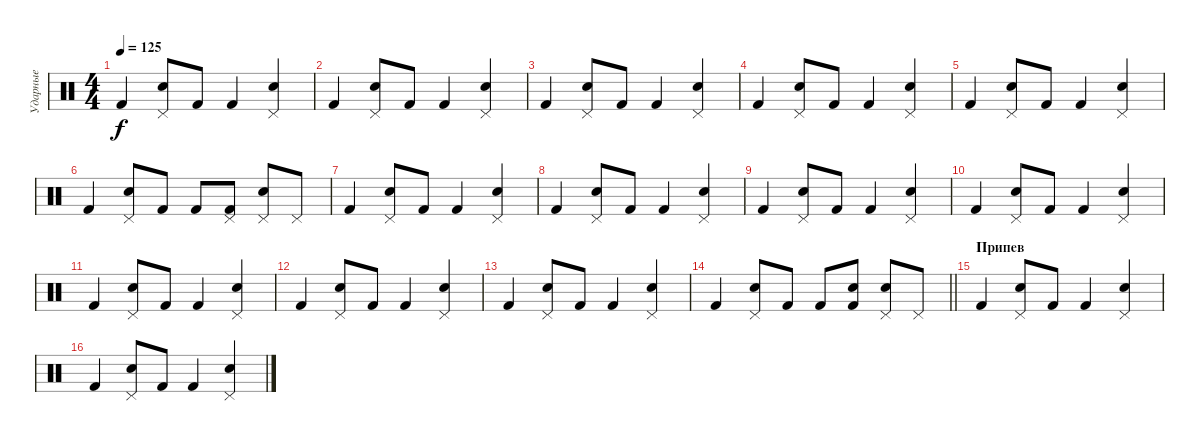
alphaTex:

\track ("Ударные" "Ударные") {instrument percussion}
\staff {score}
\articulation defaults
\ts (4 4)
\tempo 125
\clef neutral
\ks c "Kick (hit) 2".4{dy f}
("Snare (hit) 2" "Pedal Hi-Hat (hit)").8 "Kick (hit) 2".8 "Kick (hit) 2".4 ("Snare (hit) 2" "Pedal Hi-Hat (hit)").4 |
"Kick (hit) 2".4 ("Snare (hit) 2" "Pedal Hi-Hat (hit)").8 "Kick (hit) 2".8 "Kick (hit) 2".4 ("Snare (hit) 2" "Pedal Hi-Hat (hit)").4 |
"Kick (hit) 2".4 ("Snare (hit) 2" "Pedal Hi-Hat (hit)").8 "Kick (hit) 2".8 "Kick (hit) 2".4 ("Snare (hit) 2" "Pedal Hi-Hat (hit)").4 |
"Kick (hit) 2".4 ("Snare (hit) 2" "Pedal Hi-Hat (hit)").8 "Kick (hit) 2".8 "Kick (hit) 2".4 ("Snare (hit) 2" "Pedal Hi-Hat (hit)").4 |
"Kick (hit) 2".4 ("Snare (hit) 2" "Pedal Hi-Hat (hit)").8 "Kick (hit) 2".8 "Kick (hit) 2".4 ("Snare (hit) 2" "Pedal Hi-Hat (hit)").4 |
"Kick (hit) 2".4 ("Snare (hit) 2" "Pedal Hi-Hat (hit)").8 "Kick (hit) 2".8 "Kick (hit) 2".8 ("Pedal Hi-Hat (hit)" "Kick (hit) 2").8 ("Snare (hit) 2" "Pedal Hi-Hat (hit)").8 "Pedal Hi-Hat (hit)".8 |
"Kick (hit) 2".4 ("Snare (hit) 2" "Pedal Hi-Hat (hit)").8 "Kick (hit) 2".8 "Kick (hit) 2".4 ("Snare (hit) 2" "Pedal Hi-Hat (hit)").4 |
"Kick (hit) 2".4 ("Snare (hit) 2" "Pedal Hi-Hat (hit)").8 "Kick (hit) 2".8 "Kick (hit) 2".4 ("Snare (hit) 2" "Pedal Hi-Hat (hit)").4 |
"Kick (hit) 2".4 ("Snare (hit) 2" "Pedal Hi-Hat (hit)").8 "Kick (hit) 2".8 "Kick (hit) 2".4 ("Snare (hit) 2" "Pedal Hi-Hat (hit)").4 |
"Kick (hit) 2".4 ("Snare (hit) 2" "Pedal Hi-Hat (hit)").8 "Kick (hit) 2".8 "Kick (hit) 2".4 ("Snare (hit) 2" "Pedal Hi-Hat (hit)").4 |
"Kick (hit) 2".4 ("Snare (hit) 2" "Pedal Hi-Hat (hit)").8 "Kick (hit) 2".8 "Kick (hit) 2".4 ("Snare (hit) 2" "Pedal Hi-Hat (hit)").4 |
"Kick (hit) 2".4 ("Snare (hit) 2" "Pedal Hi-Hat (hit)").8 "Kick (hit) 2".8 "Kick (hit) 2".4 ("Snare (hit) 2" "Pedal Hi-Hat (hit)").4 |
"Kick (hit) 2".4 ("Snare (hit) 2" "Pedal Hi-Hat (hit)").8 "Kick (hit) 2".8 "Kick (hit) 2".4 ("Snare (hit) 2" "Pedal Hi-Hat (hit)").4 |
\barLineRight lightlight "Kick (hit) 2".4
("Snare (hit) 2" "Pedal Hi-Hat (hit)").8 "Kick (hit) 2".8 "Kick (hit) 2".8 ("Snare (hit) 2" "Kick (hit) 2").8 ("Snare (hit) 2" "Pedal Hi-Hat (hit)").8 "Pedal Hi-Hat (hit)".8 |
\section ("" "Припев")
"Kick (hit) 2".4 ("Snare (hit) 2" "Pedal Hi-Hat (hit)").8 "Kick (hit) 2".8 "Kick (hit) 2".4 ("Snare (hit) 2" "Pedal Hi-Hat (hit)").4 |
"Kick (hit) 2".4 ("Snare (hit) 2" "Pedal Hi-Hat (hit)").8 "Kick (hit) 2".8 "Kick (hit) 2".4 ("Snare (hit) 2" "Pedal Hi-Hat (hit)").4
